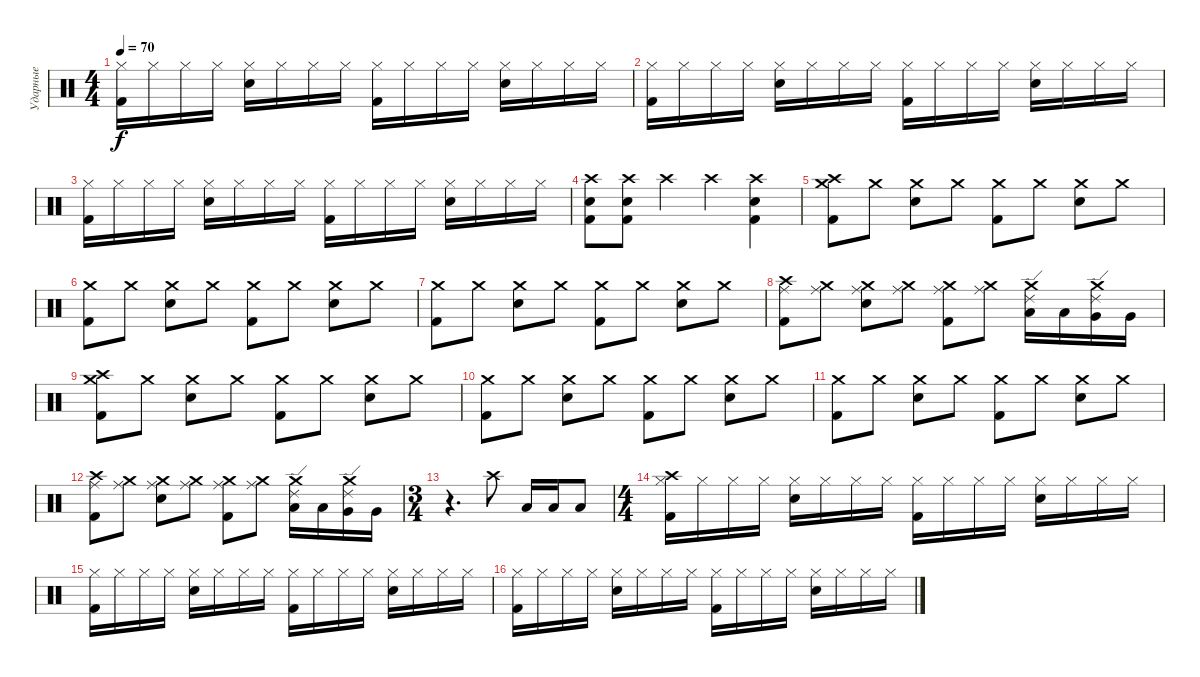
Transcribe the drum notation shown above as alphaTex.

\track ("Ударные" "Ударные") {instrument percussion}
\staff {score}
\articulation defaults
\ts (4 4)
\tempo 70
\clef neutral
\ks c
("Hi-Hat (closed)" "Kick (hit) 2").16{dy f} "Hi-Hat (closed)".16 "Hi-Hat (closed)".16 "Hi-Hat (closed)".16 ("Hi-Hat (closed)" "Electric Snare (hit)").16 "Hi-Hat (closed)".16 "Hi-Hat (closed)".16 "Hi-Hat (closed)".16 ("Hi-Hat (closed)" "Kick (hit) 2").16 "Hi-Hat (closed)".16 "Hi-Hat (closed)".16 "Hi-Hat (closed)".16 ("Hi-Hat (closed)" "Electric Snare (hit)").16 "Hi-Hat (closed)".16 "Hi-Hat (closed)".16 "Hi-Hat (closed)".16 |
("Hi-Hat (closed)" "Kick (hit) 2").16 "Hi-Hat (closed)".16 "Hi-Hat (closed)".16 "Hi-Hat (closed)".16 ("Hi-Hat (closed)" "Electric Snare (hit)").16 "Hi-Hat (closed)".16 "Hi-Hat (closed)".16 "Hi-Hat (closed)".16 ("Hi-Hat (closed)" "Kick (hit) 2").16 "Hi-Hat (closed)".16 "Hi-Hat (closed)".16 "Hi-Hat (closed)".16 ("Hi-Hat (closed)" "Electric Snare (hit)").16 "Hi-Hat (closed)".16 "Hi-Hat (closed)".16 "Hi-Hat (closed)".16 |
("Hi-Hat (closed)" "Kick (hit) 2").16 "Hi-Hat (closed)".16 "Hi-Hat (closed)".16 "Hi-Hat (closed)".16 ("Hi-Hat (closed)" "Electric Snare (hit)").16 "Hi-Hat (closed)".16 "Hi-Hat (closed)".16 "Hi-Hat (closed)".16 ("Hi-Hat (closed)" "Kick (hit) 2").16 "Hi-Hat (closed)".16 "Hi-Hat (closed)".16 "Hi-Hat (closed)".16 ("Hi-Hat (closed)" "Electric Snare (hit)").16 "Hi-Hat (closed)".16 "Hi-Hat (closed)".16 "Hi-Hat (closed)".16 |
("Kick (hit) 2" "Electric Snare (hit)" "Crash high (hit)").8 ("Kick (hit) 2" "Electric Snare (hit)" "Crash high (hit)").8 "Crash high (hit)".4 "Crash high (hit)".4 ("Crash high (hit)" "Kick (hit) 2" "Electric Snare (hit)").4 |
("Crash medium (hit)" "Kick (hit) 2" "Crash high (hit)").8 "Crash medium (hit)".8 ("Crash medium (hit)" "Electric Snare (hit)").8 "Crash medium (hit)".8 ("Crash medium (hit)" "Kick (hit) 2").8 "Crash medium (hit)".8 ("Crash medium (hit)" "Electric Snare (hit)").8 "Crash medium (hit)".8 |
("Crash medium (hit)" "Kick (hit) 2").8 "Crash medium (hit)".8 ("Crash medium (hit)" "Electric Snare (hit)").8 "Crash medium (hit)".8 ("Crash medium (hit)" "Kick (hit) 2").8 "Crash medium (hit)".8 ("Crash medium (hit)" "Electric Snare (hit)").8 "Crash medium (hit)".8 |
("Crash medium (hit)" "Kick (hit) 2").8 "Crash medium (hit)".8 ("Crash medium (hit)" "Electric Snare (hit)").8 "Crash medium (hit)".8 ("Crash medium (hit)" "Kick (hit) 2").8 "Crash medium (hit)".8 ("Crash medium (hit)" "Electric Snare (hit)").8 "Crash medium (hit)".8 |
("Ride (middle)" "Kick (hit) 2" "Crash high (hit)").8 ("Crash medium (hit)" "Ride (middle)").8 ("Crash medium (hit)" "Electric Snare (hit)" "Ride (middle)").8 ("Crash medium (hit)" "Ride (middle)").8 ("Crash medium (hit)" "Kick (hit) 2" "Ride (middle)").8 ("Crash medium (hit)" "Ride (middle)").8 ("Low Tom (hit)" "Crash medium (hit)" "Ride (edge) 2").16 "Low Tom (hit)".16 ("Very Low Tom (hit)" "Ride (edge) 2" "Crash medium (hit)").16 "Very Low Tom (hit)".16 |
("Crash medium (hit)" "Kick (hit) 2" "Crash high (hit)").8 "Crash medium (hit)".8 ("Crash medium (hit)" "Electric Snare (hit)").8 "Crash medium (hit)".8 ("Crash medium (hit)" "Kick (hit) 2").8 "Crash medium (hit)".8 ("Crash medium (hit)" "Electric Snare (hit)").8 "Crash medium (hit)".8 |
("Crash medium (hit)" "Kick (hit) 2").8 "Crash medium (hit)".8 ("Crash medium (hit)" "Electric Snare (hit)").8 "Crash medium (hit)".8 ("Crash medium (hit)" "Kick (hit) 2").8 "Crash medium (hit)".8 ("Crash medium (hit)" "Electric Snare (hit)").8 "Crash medium (hit)".8 |
("Crash medium (hit)" "Kick (hit) 2").8 "Crash medium (hit)".8 ("Crash medium (hit)" "Electric Snare (hit)").8 "Crash medium (hit)".8 ("Crash medium (hit)" "Kick (hit) 2").8 "Crash medium (hit)".8 ("Crash medium (hit)" "Electric Snare (hit)").8 "Crash medium (hit)".8 |
("Ride (middle)" "Kick (hit) 2" "Crash high (hit)").8 ("Crash medium (hit)" "Ride (middle)").8 ("Crash medium (hit)" "Electric Snare (hit)" "Ride (middle)").8 ("Crash medium (hit)" "Ride (middle)").8 ("Crash medium (hit)" "Kick (hit) 2" "Ride (middle)").8 ("Crash medium (hit)" "Ride (middle)").8 ("Low Tom (hit)" "Crash medium (hit)" "Ride (edge) 2").16 "Low Tom (hit)".16 ("Very Low Tom (hit)" "Ride (edge) 2" "Crash medium (hit)").16 "Very Low Tom (hit)".16 |
\ts (3 4)
r.4{d} "Crash high (hit)".8 "Low Tom (hit)".16 "Low Tom (hit)".16 "Low Floor Tom (hit)".8 |
\ts (4 4)
("Hi-Hat (closed)" "Kick (hit) 2" "Crash high (hit)").16 "Hi-Hat (closed)".16 "Hi-Hat (closed)".16 "Hi-Hat (closed)".16 ("Hi-Hat (closed)" "Electric Snare (hit)").16 "Hi-Hat (closed)".16 "Hi-Hat (closed)".16 "Hi-Hat (closed)".16 ("Hi-Hat (closed)" "Kick (hit) 2").16 "Hi-Hat (closed)".16 "Hi-Hat (closed)".16 "Hi-Hat (closed)".16 ("Hi-Hat (closed)" "Electric Snare (hit)").16 "Hi-Hat (closed)".16 "Hi-Hat (closed)".16 "Hi-Hat (closed)".16 |
("Hi-Hat (closed)" "Kick (hit) 2").16 "Hi-Hat (closed)".16 "Hi-Hat (closed)".16 "Hi-Hat (closed)".16 ("Hi-Hat (closed)" "Electric Snare (hit)").16 "Hi-Hat (closed)".16 "Hi-Hat (closed)".16 "Hi-Hat (closed)".16 ("Hi-Hat (closed)" "Kick (hit) 2").16 "Hi-Hat (closed)".16 "Hi-Hat (closed)".16 "Hi-Hat (closed)".16 ("Hi-Hat (closed)" "Electric Snare (hit)").16 "Hi-Hat (closed)".16 "Hi-Hat (closed)".16 "Hi-Hat (closed)".16 |
("Hi-Hat (closed)" "Kick (hit) 2").16 "Hi-Hat (closed)".16 "Hi-Hat (closed)".16 "Hi-Hat (closed)".16 ("Hi-Hat (closed)" "Electric Snare (hit)").16 "Hi-Hat (closed)".16 "Hi-Hat (closed)".16 "Hi-Hat (closed)".16 ("Hi-Hat (closed)" "Kick (hit) 2").16 "Hi-Hat (closed)".16 "Hi-Hat (closed)".16 "Hi-Hat (closed)".16 ("Hi-Hat (closed)" "Electric Snare (hit)").16 "Hi-Hat (closed)".16 "Hi-Hat (closed)".16 "Hi-Hat (closed)".16
